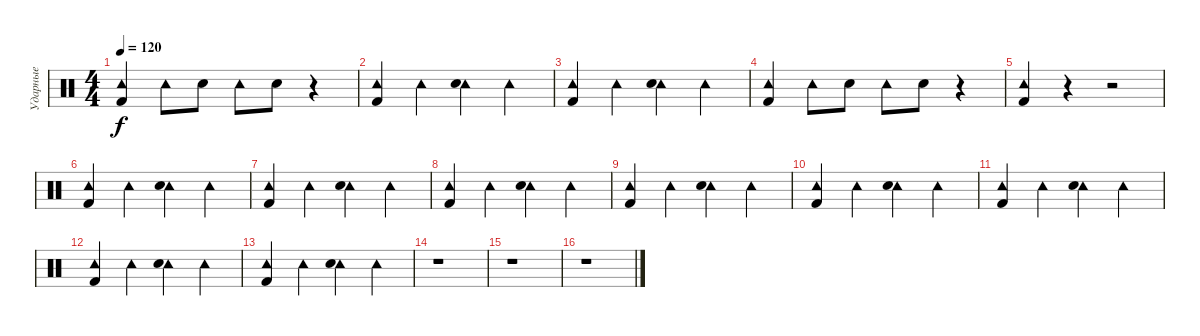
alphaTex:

\track ("Ударные" "Ударные") {instrument percussion}
\staff {score}
\articulation defaults
\ts (4 4)
\tempo 120
\clef neutral
\ks c
("Tambourine (hit)" "Kick (hit) 2").4{dy f} "Tambourine (hit)".8 "Electric Snare (hit)".8 "Tambourine (hit)".8 "Electric Snare (hit)".8 r.4 |
("Tambourine (hit)" "Kick (hit) 2").4 "Tambourine (hit)".4 ("Tambourine (hit)" "Electric Snare (hit)").4 "Tambourine (hit)".4 |
("Tambourine (hit)" "Kick (hit) 2").4 "Tambourine (hit)".4 ("Tambourine (hit)" "Electric Snare (hit)").4 "Tambourine (hit)".4 |
("Tambourine (hit)" "Kick (hit) 2").4 "Tambourine (hit)".8 "Electric Snare (hit)".8 "Tambourine (hit)".8 "Electric Snare (hit)".8 r.4 |
("Tambourine (hit)" "Kick (hit) 2").4 r.4 r.2 |
("Tambourine (hit)" "Kick (hit) 2").4 "Tambourine (hit)".4 ("Tambourine (hit)" "Electric Snare (hit)").4 "Tambourine (hit)".4 |
("Tambourine (hit)" "Kick (hit) 2").4 "Tambourine (hit)".4 ("Tambourine (hit)" "Electric Snare (hit)").4 "Tambourine (hit)".4 |
("Tambourine (hit)" "Kick (hit) 2").4 "Tambourine (hit)".4 ("Tambourine (hit)" "Electric Snare (hit)").4 "Tambourine (hit)".4 |
("Tambourine (hit)" "Kick (hit) 2").4 "Tambourine (hit)".4 ("Tambourine (hit)" "Electric Snare (hit)").4 "Tambourine (hit)".4 |
("Tambourine (hit)" "Kick (hit) 2").4 "Tambourine (hit)".4 ("Tambourine (hit)" "Electric Snare (hit)").4 "Tambourine (hit)".4 |
("Tambourine (hit)" "Kick (hit) 2").4 "Tambourine (hit)".4 ("Tambourine (hit)" "Electric Snare (hit)").4 "Tambourine (hit)".4 |
("Tambourine (hit)" "Kick (hit) 2").4 "Tambourine (hit)".4 ("Tambourine (hit)" "Electric Snare (hit)").4 "Tambourine (hit)".4 |
("Tambourine (hit)" "Kick (hit) 2").4 "Tambourine (hit)".4 ("Tambourine (hit)" "Electric Snare (hit)").4 "Tambourine (hit)".4 |
r.1 |
r.1 |
r.1
